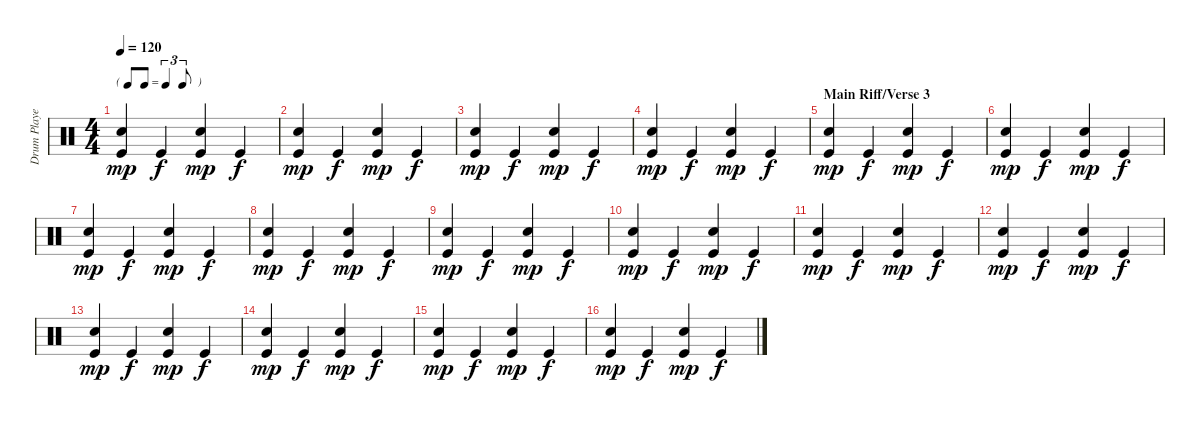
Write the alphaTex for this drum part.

\track ("Drum Player" "Drum Playe") {instrument percussion}
\staff {score}
\articulation defaults
\ts (4 4)
\tf triplet8th
\tempo 120
\clef neutral
\ks c
("Hand Clap (hit)" "Kick (hit)").4{dy mp} "Kick (hit)".4{dy f} ("Hand Clap (hit)" "Kick (hit)").4{dy mp} "Kick (hit)".4{dy f} |
("Hand Clap (hit)" "Kick (hit)").4{dy mp} "Kick (hit)".4{dy f} ("Hand Clap (hit)" "Kick (hit)").4{dy mp} "Kick (hit)".4{dy f} |
("Hand Clap (hit)" "Kick (hit)").4{dy mp} "Kick (hit)".4{dy f} ("Hand Clap (hit)" "Kick (hit)").4{dy mp} "Kick (hit)".4{dy f} |
("Hand Clap (hit)" "Kick (hit)").4{dy mp} "Kick (hit)".4{dy f} ("Hand Clap (hit)" "Kick (hit)").4{dy mp} "Kick (hit)".4{dy f} |
\section ("" "Main Riff/Verse 3")
("Hand Clap (hit)" "Kick (hit)").4{dy mp} "Kick (hit)".4{dy f} ("Hand Clap (hit)" "Kick (hit)").4{dy mp} "Kick (hit)".4{dy f} |
("Hand Clap (hit)" "Kick (hit)").4{dy mp} "Kick (hit)".4{dy f} ("Hand Clap (hit)" "Kick (hit)").4{dy mp} "Kick (hit)".4{dy f} |
("Hand Clap (hit)" "Kick (hit)").4{dy mp} "Kick (hit)".4{dy f} ("Hand Clap (hit)" "Kick (hit)").4{dy mp} "Kick (hit)".4{dy f} |
("Hand Clap (hit)" "Kick (hit)").4{dy mp} "Kick (hit)".4{dy f} ("Hand Clap (hit)" "Kick (hit)").4{dy mp} "Kick (hit)".4{dy f} |
("Hand Clap (hit)" "Kick (hit)").4{dy mp} "Kick (hit)".4{dy f} ("Hand Clap (hit)" "Kick (hit)").4{dy mp} "Kick (hit)".4{dy f} |
("Hand Clap (hit)" "Kick (hit)").4{dy mp} "Kick (hit)".4{dy f} ("Hand Clap (hit)" "Kick (hit)").4{dy mp} "Kick (hit)".4{dy f} |
("Hand Clap (hit)" "Kick (hit)").4{dy mp} "Kick (hit)".4{dy f} ("Hand Clap (hit)" "Kick (hit)").4{dy mp} "Kick (hit)".4{dy f} |
("Hand Clap (hit)" "Kick (hit)").4{dy mp} "Kick (hit)".4{dy f} ("Hand Clap (hit)" "Kick (hit)").4{dy mp} "Kick (hit)".4{dy f} |
("Hand Clap (hit)" "Kick (hit)").4{dy mp} "Kick (hit)".4{dy f} ("Hand Clap (hit)" "Kick (hit)").4{dy mp} "Kick (hit)".4{dy f} |
("Hand Clap (hit)" "Kick (hit)").4{dy mp} "Kick (hit)".4{dy f} ("Hand Clap (hit)" "Kick (hit)").4{dy mp} "Kick (hit)".4{dy f} |
("Hand Clap (hit)" "Kick (hit)").4{dy mp} "Kick (hit)".4{dy f} ("Hand Clap (hit)" "Kick (hit)").4{dy mp} "Kick (hit)".4{dy f} |
("Hand Clap (hit)" "Kick (hit)").4{dy mp} "Kick (hit)".4{dy f} ("Hand Clap (hit)" "Kick (hit)").4{dy mp} "Kick (hit)".4{dy f}
